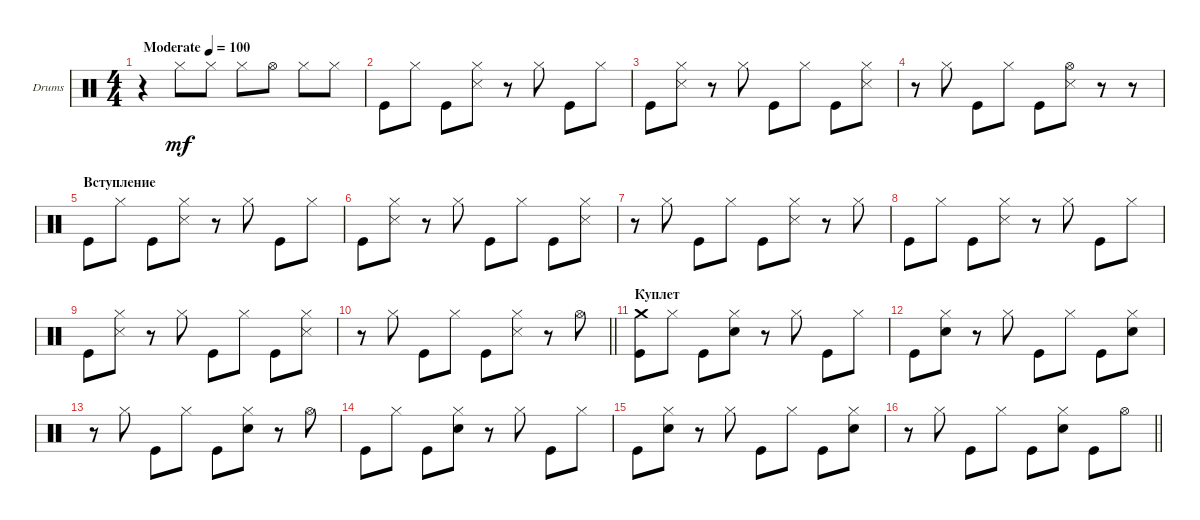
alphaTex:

\bracketExtendMode groupsimilarinstruments
\firstSystemTrackNameOrientation horizontal
\otherSystemsTrackNameOrientation horizontal
\track ("Е. Кулаков" "Drums") {instrument percussion}
\staff {score}
\articulation defaults
\ts (4 4)
\beaming (8 2 2 2 2)
\tempo (100 "Moderate")
\clef neutral
\ks c
r.4{dy mf} "Hi-Hat (closed)".8 "Hi-Hat (closed)".8 "Hi-Hat (closed)".8 "Hi-Hat (open)".8 "Hi-Hat (closed)".8 "Hi-Hat (closed)".8 |
"Kick (hit)".8 "Hi-Hat (closed)".8 "Kick (hit)".8 ("Snare (side stick) 3" "Hi-Hat (closed)").8 r.8 "Hi-Hat (closed)".8 "Kick (hit)".8 "Hi-Hat (closed)".8 |
"Kick (hit)".8 ("Snare (side stick) 3" "Hi-Hat (closed)").8 r.8 "Hi-Hat (closed)".8 "Kick (hit)".8 "Hi-Hat (closed)".8 "Kick (hit)".8 ("Snare (side stick) 3" "Hi-Hat (closed)").8 |
r.8 "Hi-Hat (closed)".8 "Kick (hit)".8 "Hi-Hat (closed)".8 "Kick (hit)".8 ("Snare (side stick) 3" "Hi-Hat (open)").8 r.8 r.8 |
\section ("" "Вступление")
"Kick (hit)".8 "Hi-Hat (closed)".8 "Kick (hit)".8 ("Snare (side stick) 3" "Hi-Hat (closed)").8 r.8 "Hi-Hat (closed)".8 "Kick (hit)".8 "Hi-Hat (closed)".8 |
"Kick (hit)".8 ("Snare (side stick) 3" "Hi-Hat (closed)").8 r.8 "Hi-Hat (closed)".8 "Kick (hit)".8 "Hi-Hat (closed)".8 "Kick (hit)".8 ("Snare (side stick) 3" "Hi-Hat (closed)").8 |
r.8 "Hi-Hat (closed)".8 "Kick (hit)".8 "Hi-Hat (closed)".8 "Kick (hit)".8 ("Snare (side stick) 3" "Hi-Hat (closed)").8 r.8 "Hi-Hat (closed)".8 |
"Kick (hit)".8 "Hi-Hat (closed)".8 "Kick (hit)".8 ("Snare (side stick) 3" "Hi-Hat (closed)").8 r.8 "Hi-Hat (closed)".8 "Kick (hit)".8 "Hi-Hat (closed)".8 |
"Kick (hit)".8 ("Snare (side stick) 3" "Hi-Hat (closed)").8 r.8 "Hi-Hat (closed)".8 "Kick (hit)".8 "Hi-Hat (closed)".8 "Kick (hit)".8 ("Snare (side stick) 3" "Hi-Hat (closed)").8 |
\barLineRight lightlight
r.8 "Hi-Hat (closed)".8 "Kick (hit)".8 "Hi-Hat (closed)".8 "Kick (hit)".8 ("Snare (side stick) 3" "Hi-Hat (closed)").8 r.8 "Hi-Hat (open)".8 |
\section ("" "Куплет")
("Kick (hit)" "Crash medium (hit)").8 "Hi-Hat (closed)".8 "Kick (hit)".8 ("Snare (hit) 2" "Hi-Hat (closed)").8 r.8 "Hi-Hat (closed)".8 "Kick (hit)".8 "Hi-Hat (closed)".8 |
"Kick (hit)".8 ("Snare (hit) 2" "Hi-Hat (closed)").8 r.8 "Hi-Hat (closed)".8 "Kick (hit)".8 "Hi-Hat (closed)".8 "Kick (hit)".8 ("Snare (hit) 2" "Hi-Hat (closed)").8 |
r.8 "Hi-Hat (closed)".8 "Kick (hit)".8 "Hi-Hat (closed)".8 "Kick (hit)".8 ("Snare (hit) 2" "Hi-Hat (closed)").8 r.8 "Hi-Hat (open)".8 |
"Kick (hit)".8 "Hi-Hat (closed)".8 "Kick (hit)".8 ("Snare (hit) 2" "Hi-Hat (closed)").8 r.8 "Hi-Hat (closed)".8 "Kick (hit)".8 "Hi-Hat (closed)".8 |
"Kick (hit)".8 ("Snare (hit) 2" "Hi-Hat (closed)").8 r.8 "Hi-Hat (closed)".8 "Kick (hit)".8 "Hi-Hat (closed)".8 "Kick (hit)".8 ("Snare (hit) 2" "Hi-Hat (closed)").8 |
\barLineRight lightlight
r.8 "Hi-Hat (closed)".8 "Kick (hit)".8 "Hi-Hat (closed)".8 "Kick (hit)".8 ("Snare (hit) 2" "Hi-Hat (closed)").8 "Kick (hit)".8 "Hi-Hat (open)".8
